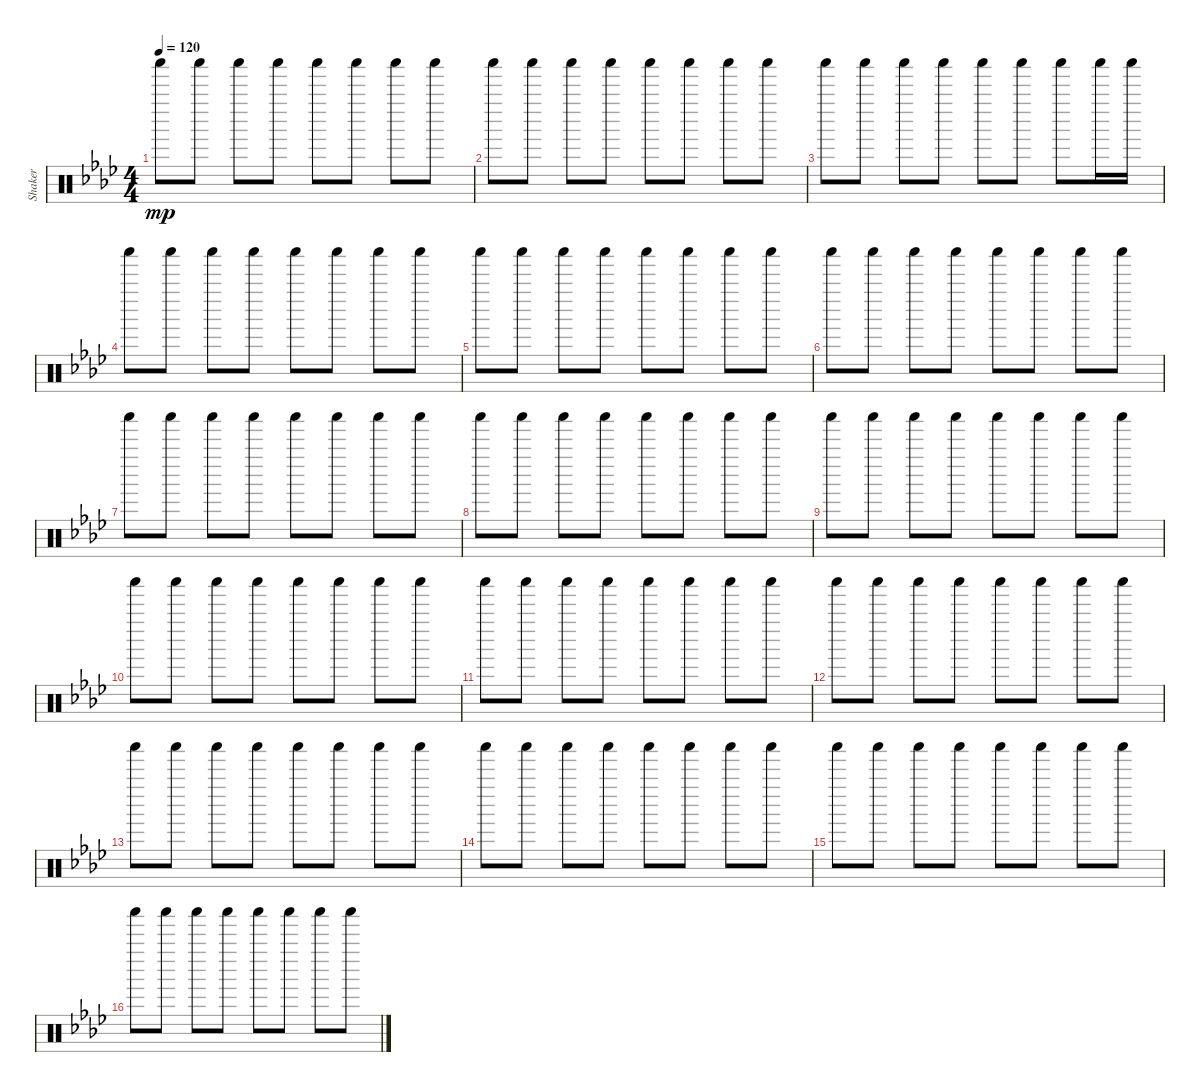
\track ("Shaker" "Shaker") {instrument percussion}
\staff {score}
\articulation defaults
\ts (4 4)
\tempo 120
\clef neutral
\ks ab "Shaker (hit)".8{dy mp} "Shaker (hit)".8 "Shaker (hit)".8 "Shaker (hit)".8 "Shaker (hit)".8 "Shaker (hit)".8 "Shaker (hit)".8 "Shaker (hit)".8
|
"Shaker (hit)".8 "Shaker (hit)".8 "Shaker (hit)".8 "Shaker (hit)".8 "Shaker (hit)".8 "Shaker (hit)".8 "Shaker (hit)".8 "Shaker (hit)".8 |
"Shaker (hit)".8 "Shaker (hit)".8 "Shaker (hit)".8 "Shaker (hit)".8 "Shaker (hit)".8 "Shaker (hit)".8 "Shaker (hit)".8 "Shaker (hit)".16 "Shaker (hit)".16 |
"Shaker (hit)".8 "Shaker (hit)".8 "Shaker (hit)".8 "Shaker (hit)".8 "Shaker (hit)".8 "Shaker (hit)".8 "Shaker (hit)".8 "Shaker (hit)".8 |
"Shaker (hit)".8 "Shaker (hit)".8 "Shaker (hit)".8 "Shaker (hit)".8 "Shaker (hit)".8 "Shaker (hit)".8 "Shaker (hit)".8 "Shaker (hit)".8 |
"Shaker (hit)".8 "Shaker (hit)".8 "Shaker (hit)".8 "Shaker (hit)".8 "Shaker (hit)".8 "Shaker (hit)".8 "Shaker (hit)".8 "Shaker (hit)".8 |
"Shaker (hit)".8 "Shaker (hit)".8 "Shaker (hit)".8 "Shaker (hit)".8 "Shaker (hit)".8 "Shaker (hit)".8 "Shaker (hit)".8 "Shaker (hit)".8 |
"Shaker (hit)".8 "Shaker (hit)".8 "Shaker (hit)".8 "Shaker (hit)".8 "Shaker (hit)".8 "Shaker (hit)".8 "Shaker (hit)".8 "Shaker (hit)".8 |
"Shaker (hit)".8 "Shaker (hit)".8 "Shaker (hit)".8 "Shaker (hit)".8 "Shaker (hit)".8 "Shaker (hit)".8 "Shaker (hit)".8 "Shaker (hit)".8 |
"Shaker (hit)".8 "Shaker (hit)".8 "Shaker (hit)".8 "Shaker (hit)".8 "Shaker (hit)".8 "Shaker (hit)".8 "Shaker (hit)".8 "Shaker (hit)".8 |
"Shaker (hit)".8 "Shaker (hit)".8 "Shaker (hit)".8 "Shaker (hit)".8 "Shaker (hit)".8 "Shaker (hit)".8 "Shaker (hit)".8 "Shaker (hit)".8 |
"Shaker (hit)".8 "Shaker (hit)".8 "Shaker (hit)".8 "Shaker (hit)".8 "Shaker (hit)".8 "Shaker (hit)".8 "Shaker (hit)".8 "Shaker (hit)".8 |
"Shaker (hit)".8 "Shaker (hit)".8 "Shaker (hit)".8 "Shaker (hit)".8 "Shaker (hit)".8 "Shaker (hit)".8 "Shaker (hit)".8 "Shaker (hit)".8 |
"Shaker (hit)".8 "Shaker (hit)".8 "Shaker (hit)".8 "Shaker (hit)".8 "Shaker (hit)".8 "Shaker (hit)".8 "Shaker (hit)".8 "Shaker (hit)".8 |
"Shaker (hit)".8 "Shaker (hit)".8 "Shaker (hit)".8 "Shaker (hit)".8 "Shaker (hit)".8 "Shaker (hit)".8 "Shaker (hit)".8 "Shaker (hit)".8 |
"Shaker (hit)".8 "Shaker (hit)".8 "Shaker (hit)".8 "Shaker (hit)".8 "Shaker (hit)".8 "Shaker (hit)".8 "Shaker (hit)".8 "Shaker (hit)".8
